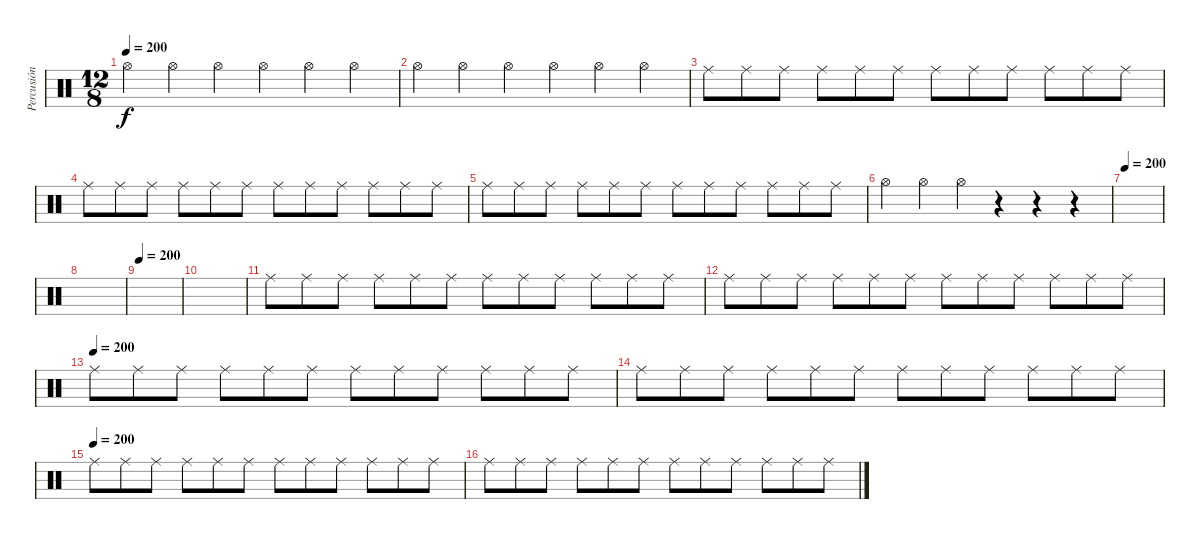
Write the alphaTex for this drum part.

\track ("Percusión" "Percusión") {instrument percussion}
\staff {score}
\articulation defaults
\ts (12 8)
\tempo 200
\clef neutral
\ks c "Hi-Hat (open)".4{dy f} "Hi-Hat (open)".4 "Hi-Hat (open)".4 "Hi-Hat (open)".4 "Hi-Hat (open)".4 "Hi-Hat (open)".4
|
"Hi-Hat (open)".4 "Hi-Hat (open)".4 "Hi-Hat (open)".4 "Hi-Hat (open)".4 "Hi-Hat (open)".4 "Hi-Hat (open)".4 |
"Ride (middle)".8 "Ride (middle)".8 "Ride (middle)".8 "Ride (middle)".8 "Ride (middle)".8 "Ride (middle)".8 "Ride (middle)".8 "Ride (middle)".8 "Ride (middle)".8 "Ride (middle)".8 "Ride (middle)".8 "Ride (middle)".8 |
"Ride (middle)".8 "Ride (middle)".8 "Ride (middle)".8 "Ride (middle)".8 "Ride (middle)".8 "Ride (middle)".8 "Ride (middle)".8 "Ride (middle)".8 "Ride (middle)".8 "Ride (middle)".8 "Ride (middle)".8 "Ride (middle)".8 |
"Ride (middle)".8 "Ride (middle)".8 "Ride (middle)".8 "Ride (middle)".8 "Ride (middle)".8 "Ride (middle)".8 "Ride (middle)".8 "Ride (middle)".8 "Ride (middle)".8 "Ride (middle)".8 "Ride (middle)".8 "Ride (middle)".8 |
"Hi-Hat (open)".4 "Hi-Hat (open)".4 "Hi-Hat (open)".4 r.4 r.4 r.4 |
\tempo 200
|
|
\tempo 200
|
|
"Ride (middle)".8 "Ride (middle)".8 "Ride (middle)".8 "Ride (middle)".8 "Ride (middle)".8 "Ride (middle)".8 "Ride (middle)".8 "Ride (middle)".8 "Ride (middle)".8 "Ride (middle)".8 "Ride (middle)".8 "Ride (middle)".8 |
"Ride (middle)".8 "Ride (middle)".8 "Ride (middle)".8 "Ride (middle)".8 "Ride (middle)".8 "Ride (middle)".8 "Ride (middle)".8 "Ride (middle)".8 "Ride (middle)".8 "Ride (middle)".8 "Ride (middle)".8 "Ride (middle)".8 |
\tempo (200)
"Ride (middle)".8 "Ride (middle)".8 "Ride (middle)".8 "Ride (middle)".8 "Ride (middle)".8 "Ride (middle)".8 "Ride (middle)".8 "Ride (middle)".8 "Ride (middle)".8 "Ride (middle)".8 "Ride (middle)".8 "Ride (middle)".8 |
"Ride (middle)".8 "Ride (middle)".8 "Ride (middle)".8 "Ride (middle)".8 "Ride (middle)".8 "Ride (middle)".8 "Ride (middle)".8 "Ride (middle)".8 "Ride (middle)".8 "Ride (middle)".8 "Ride (middle)".8 "Ride (middle)".8 |
\tempo (200)
"Ride (middle)".8 "Ride (middle)".8 "Ride (middle)".8 "Ride (middle)".8 "Ride (middle)".8 "Ride (middle)".8 "Ride (middle)".8 "Ride (middle)".8 "Ride (middle)".8 "Ride (middle)".8 "Ride (middle)".8 "Ride (middle)".8 |
"Ride (middle)".8 "Ride (middle)".8 "Ride (middle)".8 "Ride (middle)".8 "Ride (middle)".8 "Ride (middle)".8 "Ride (middle)".8 "Ride (middle)".8 "Ride (middle)".8 "Ride (middle)".8 "Ride (middle)".8 "Ride (middle)".8
